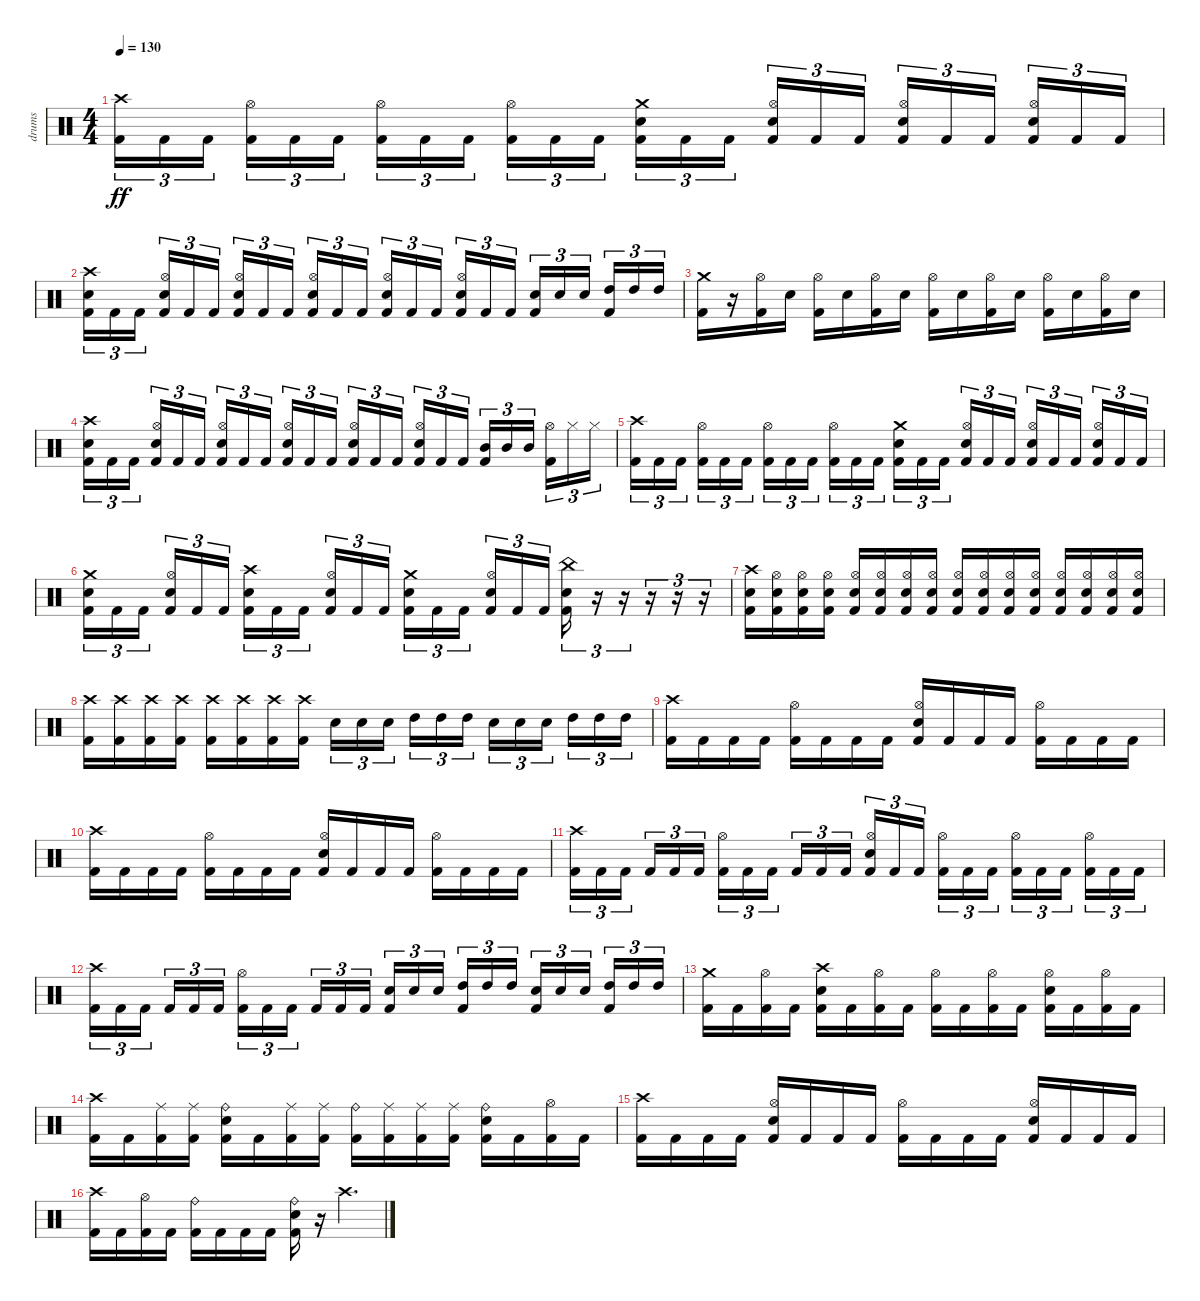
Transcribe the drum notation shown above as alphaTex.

\track ("drums" "drums") {instrument percussion}
\staff {score}
\articulation defaults
\ts (4 4)
\tempo 130
\clef neutral
\ks c
("Crash high (hit)" "Kick (hit) 2").16{tu (3 2) dy ff} "Kick (hit) 2".16{tu (3 2)} "Kick (hit) 2".16{tu (3 2) beam splitsecondary} ("Hi-Hat (open)" "Kick (hit) 2").16{tu (3 2)} "Kick (hit) 2".16{tu (3 2)} "Kick (hit) 2".16{tu (3 2)} ("Hi-Hat (open)" "Kick (hit) 2").16{tu (3 2)} "Kick (hit) 2".16{tu (3 2)} "Kick (hit) 2".16{tu (3 2) beam splitsecondary} ("Hi-Hat (open)" "Kick (hit) 2").16{tu (3 2)} "Kick (hit) 2".16{tu (3 2)} "Kick (hit) 2".16{tu (3 2)} ("Electric Snare (hit)" "Crash medium (hit)" "Kick (hit) 2").16{tu (3 2)} "Kick (hit) 2".16{tu (3 2)} "Kick (hit) 2".16{tu (3 2) beam splitsecondary} ("Electric Snare (hit)" "Hi-Hat (open)" "Kick (hit) 2").16{tu (3 2)} "Kick (hit) 2".16{tu (3 2)} "Kick (hit) 2".16{tu (3 2)} ("Electric Snare (hit)" "Hi-Hat (open)" "Kick (hit) 2").16{tu (3 2)} "Kick (hit) 2".16{tu (3 2)} "Kick (hit) 2".16{tu (3 2) beam splitsecondary} ("Electric Snare (hit)" "Hi-Hat (open)" "Kick (hit) 2").16{tu (3 2)} "Kick (hit) 2".16{tu (3 2)} "Kick (hit) 2".16{tu (3 2)} |
("Electric Snare (hit)" "Crash high (hit)" "Kick (hit) 2").16{tu (3 2)} "Kick (hit) 2".16{tu (3 2)} "Kick (hit) 2".16{tu (3 2) beam splitsecondary} ("Electric Snare (hit)" "Hi-Hat (open)" "Kick (hit) 2").16{tu (3 2)} "Kick (hit) 2".16{tu (3 2)} "Kick (hit) 2".16{tu (3 2)} ("Electric Snare (hit)" "Hi-Hat (open)" "Kick (hit) 2").16{tu (3 2)} "Kick (hit) 2".16{tu (3 2)} "Kick (hit) 2".16{tu (3 2) beam splitsecondary} ("Electric Snare (hit)" "Hi-Hat (open)" "Kick (hit) 2").16{tu (3 2)} "Kick (hit) 2".16{tu (3 2)} "Kick (hit) 2".16{tu (3 2)} ("Electric Snare (hit)" "Hi-Hat (open)" "Kick (hit) 2").16{tu (3 2)} "Kick (hit) 2".16{tu (3 2)} "Kick (hit) 2".16{tu (3 2) beam splitsecondary} ("Electric Snare (hit)" "Hi-Hat (open)" "Kick (hit) 2").16{tu (3 2)} "Kick (hit) 2".16{tu (3 2)} "Kick (hit) 2".16{tu (3 2)} ("Kick (hit) 2" "Electric Snare (hit)").16{tu (3 2)} "Electric Snare (hit)".16{tu (3 2)} "Electric Snare (hit)".16{tu (3 2) beam splitsecondary} ("Kick (hit) 2" "High Tom (hit)").16{tu (3 2)} "High Tom (hit)".16{tu (3 2)} "High Tom (hit)".16{tu (3 2)} |
("Crash medium (hit)" "Kick (hit) 2").16 r.16 ("Hi-Hat (open)" "Kick (hit) 2").16 "Electric Snare (hit)".16 ("Hi-Hat (open)" "Kick (hit) 2").16 "Electric Snare (hit)".16 ("Hi-Hat (open)" "Kick (hit) 2").16 "Electric Snare (hit)".16 ("Hi-Hat (open)" "Kick (hit) 2").16 "Electric Snare (hit)".16 ("Hi-Hat (open)" "Kick (hit) 2").16 "Electric Snare (hit)".16 ("Hi-Hat (open)" "Kick (hit) 2").16 "Electric Snare (hit)".16 ("Hi-Hat (open)" "Kick (hit) 2").16 "Electric Snare (hit)".16 |
("Electric Snare (hit)" "Crash high (hit)" "Kick (hit) 2").16{tu (3 2)} "Kick (hit) 2".16{tu (3 2)} "Kick (hit) 2".16{tu (3 2) beam splitsecondary} ("Electric Snare (hit)" "Hi-Hat (open)" "Kick (hit) 2").16{tu (3 2)} "Kick (hit) 2".16{tu (3 2)} "Kick (hit) 2".16{tu (3 2)} ("Electric Snare (hit)" "Hi-Hat (open)" "Kick (hit) 2").16{tu (3 2)} "Kick (hit) 2".16{tu (3 2)} "Kick (hit) 2".16{tu (3 2) beam splitsecondary} ("Electric Snare (hit)" "Hi-Hat (open)" "Kick (hit) 2").16{tu (3 2)} "Kick (hit) 2".16{tu (3 2)} "Kick (hit) 2".16{tu (3 2)} ("Electric Snare (hit)" "Hi-Hat (open)" "Kick (hit) 2").16{tu (3 2)} "Kick (hit) 2".16{tu (3 2)} "Kick (hit) 2".16{tu (3 2) beam splitsecondary} ("Electric Snare (hit)" "Hi-Hat (open)" "Kick (hit) 2").16{tu (3 2)} "Kick (hit) 2".16{tu (3 2)} "Kick (hit) 2".16{tu (3 2)} ("Kick (hit) 2" "Mid Tom (hit)").16{tu (3 2)} "Mid Tom (hit)".16{tu (3 2)} "Mid Tom (hit)".16{tu (3 2) beam splitsecondary} ("Kick (hit) 2" "Hi-Hat (open)").16{tu (3 2)} "Hi-Hat (closed)".16{tu (3 2)} "Hi-Hat (closed)".16{tu (3 2)} |
("Crash high (hit)" "Kick (hit) 2").16{tu (3 2)} "Kick (hit) 2".16{tu (3 2)} "Kick (hit) 2".16{tu (3 2) beam splitsecondary} ("Hi-Hat (open)" "Kick (hit) 2").16{tu (3 2)} "Kick (hit) 2".16{tu (3 2)} "Kick (hit) 2".16{tu (3 2)} ("Hi-Hat (open)" "Kick (hit) 2").16{tu (3 2)} "Kick (hit) 2".16{tu (3 2)} "Kick (hit) 2".16{tu (3 2) beam splitsecondary} ("Hi-Hat (open)" "Kick (hit) 2").16{tu (3 2)} "Kick (hit) 2".16{tu (3 2)} "Kick (hit) 2".16{tu (3 2)} ("Electric Snare (hit)" "Crash medium (hit)" "Kick (hit) 2").16{tu (3 2)} "Kick (hit) 2".16{tu (3 2)} "Kick (hit) 2".16{tu (3 2) beam splitsecondary} ("Electric Snare (hit)" "Hi-Hat (open)" "Kick (hit) 2").16{tu (3 2)} "Kick (hit) 2".16{tu (3 2)} "Kick (hit) 2".16{tu (3 2)} ("Electric Snare (hit)" "Hi-Hat (open)" "Kick (hit) 2").16{tu (3 2)} "Kick (hit) 2".16{tu (3 2)} "Kick (hit) 2".16{tu (3 2) beam splitsecondary} ("Electric Snare (hit)" "Hi-Hat (open)" "Kick (hit) 2").16{tu (3 2)} "Kick (hit) 2".16{tu (3 2)} "Kick (hit) 2".16{tu (3 2)} |
("Electric Snare (hit)" "Crash medium (hit)" "Kick (hit) 2").16{tu (3 2)} "Kick (hit) 2".16{tu (3 2)} "Kick (hit) 2".16{tu (3 2) beam splitsecondary} ("Electric Snare (hit)" "Hi-Hat (open)" "Kick (hit) 2").16{tu (3 2)} "Kick (hit) 2".16{tu (3 2)} "Kick (hit) 2".16{tu (3 2)} ("Electric Snare (hit)" "Crash high (hit)" "Kick (hit) 2").16{tu (3 2)} "Kick (hit) 2".16{tu (3 2)} "Kick (hit) 2".16{tu (3 2) beam splitsecondary} ("Electric Snare (hit)" "Hi-Hat (open)" "Kick (hit) 2").16{tu (3 2)} "Kick (hit) 2".16{tu (3 2)} "Kick (hit) 2".16{tu (3 2)} ("Electric Snare (hit)" "Crash medium (hit)" "Kick (hit) 2").16{tu (3 2)} "Kick (hit) 2".16{tu (3 2)} "Kick (hit) 2".16{tu (3 2) beam splitsecondary} ("Electric Snare (hit)" "Hi-Hat (open)" "Kick (hit) 2").16{tu (3 2)} "Kick (hit) 2".16{tu (3 2)} "Kick (hit) 2".16{tu (3 2)} ("Electric Snare (hit)" "China (hit)" "Kick (hit) 2").16{tu (3 2)} r.16{tu (3 2)} r.16{tu (3 2)} r.16{tu (3 2)} r.16{tu (3 2)} r.16{tu (3 2)} |
("Electric Snare (hit)" "Crash high (hit)" "Kick (hit) 2").16 ("Electric Snare (hit)" "Hi-Hat (open)" "Kick (hit) 2").16 ("Electric Snare (hit)" "Hi-Hat (open)" "Kick (hit) 2").16 ("Electric Snare (hit)" "Hi-Hat (open)" "Kick (hit) 2").16 ("Electric Snare (hit)" "Hi-Hat (open)" "Kick (hit) 2").16 ("Electric Snare (hit)" "Hi-Hat (open)" "Kick (hit) 2").16 ("Electric Snare (hit)" "Hi-Hat (open)" "Kick (hit) 2").16 ("Electric Snare (hit)" "Hi-Hat (open)" "Kick (hit) 2").16 ("Electric Snare (hit)" "Hi-Hat (open)" "Kick (hit) 2").16 ("Electric Snare (hit)" "Hi-Hat (open)" "Kick (hit) 2").16 ("Electric Snare (hit)" "Hi-Hat (open)" "Kick (hit) 2").16 ("Electric Snare (hit)" "Hi-Hat (open)" "Kick (hit) 2").16 ("Electric Snare (hit)" "Hi-Hat (open)" "Kick (hit) 2").16 ("Electric Snare (hit)" "Hi-Hat (open)" "Kick (hit) 2").16 ("Electric Snare (hit)" "Hi-Hat (open)" "Kick (hit) 2").16 ("Electric Snare (hit)" "Hi-Hat (open)" "Kick (hit) 2").16 |
("Crash high (hit)" "Kick (hit) 2").16{volume 13} ("Kick (hit) 2" "Crash high (hit)").16{volume 0} ("Crash high (hit)" "Kick (hit) 2").16{volume 13} ("Kick (hit) 2" "Crash high (hit)").16{volume 0} ("Crash high (hit)" "Kick (hit) 2").16{volume 13} ("Kick (hit) 2" "Crash high (hit)").16{volume 0} ("Crash high (hit)" "Kick (hit) 2").16{volume 13} ("Kick (hit) 2" "Crash high (hit)").16{volume 0} "Electric Snare (hit)".16{tu (3 2) volume 13} "Electric Snare (hit)".16{tu (3 2) volume 13} "Electric Snare (hit)".16{tu (3 2) volume 13 beam splitsecondary} "High Tom (hit)".16{tu (3 2)} "High Tom (hit)".16{tu (3 2)} "High Tom (hit)".16{tu (3 2)} "Electric Snare (hit)".16{tu (3 2) volume 13} "Electric Snare (hit)".16{tu (3 2) volume 13} "Electric Snare (hit)".16{tu (3 2) volume 13 beam splitsecondary} "High Tom (hit)".16{tu (3 2)} "High Tom (hit)".16{tu (3 2)} "High Tom (hit)".16{tu (3 2)} |
("Crash high (hit)" "Kick (hit) 2").16 "Kick (hit) 2".16 "Kick (hit) 2".16 "Kick (hit) 2".16 ("Hi-Hat (open)" "Kick (hit) 2").16 "Kick (hit) 2".16 "Kick (hit) 2".16 "Kick (hit) 2".16 ("Electric Snare (hit)" "Hi-Hat (open)" "Kick (hit) 2").16 "Kick (hit) 2".16 "Kick (hit) 2".16 "Kick (hit) 2".16 ("Hi-Hat (open)" "Kick (hit) 2").16 "Kick (hit) 2".16 "Kick (hit) 2".16 "Kick (hit) 2".16 |
("Crash high (hit)" "Kick (hit) 2").16 "Kick (hit) 2".16 "Kick (hit) 2".16 "Kick (hit) 2".16 ("Hi-Hat (open)" "Kick (hit) 2").16 "Kick (hit) 2".16 "Kick (hit) 2".16 "Kick (hit) 2".16 ("Electric Snare (hit)" "Hi-Hat (open)" "Kick (hit) 2").16 "Kick (hit) 2".16 "Kick (hit) 2".16 "Kick (hit) 2".16 ("Hi-Hat (open)" "Kick (hit) 2").16 "Kick (hit) 2".16 "Kick (hit) 2".16 "Kick (hit) 2".16 |
("Crash high (hit)" "Kick (hit) 2").16{tu (3 2)} "Kick (hit) 2".16{tu (3 2)} "Kick (hit) 2".16{tu (3 2) beam splitsecondary} "Kick (hit) 2".16{tu (3 2)} "Kick (hit) 2".16{tu (3 2)} "Kick (hit) 2".16{tu (3 2)} ("Hi-Hat (open)" "Kick (hit) 2").16{tu (3 2)} "Kick (hit) 2".16{tu (3 2)} "Kick (hit) 2".16{tu (3 2) beam splitsecondary} "Kick (hit) 2".16{tu (3 2)} "Kick (hit) 2".16{tu (3 2)} "Kick (hit) 2".16{tu (3 2)} ("Electric Snare (hit)" "Hi-Hat (open)" "Kick (hit) 2").16{tu (3 2)} "Kick (hit) 2".16{tu (3 2)} "Kick (hit) 2".16{tu (3 2) beam splitsecondary} ("Hi-Hat (open)" "Kick (hit) 2").16{tu (3 2)} "Kick (hit) 2".16{tu (3 2)} "Kick (hit) 2".16{tu (3 2)} ("Hi-Hat (open)" "Kick (hit) 2").16{tu (3 2)} "Kick (hit) 2".16{tu (3 2)} "Kick (hit) 2".16{tu (3 2) beam splitsecondary} ("Hi-Hat (open)" "Kick (hit) 2").16{tu (3 2)} "Kick (hit) 2".16{tu (3 2)} "Kick (hit) 2".16{tu (3 2)} |
("Crash high (hit)" "Kick (hit) 2").16{tu (3 2)} "Kick (hit) 2".16{tu (3 2)} "Kick (hit) 2".16{tu (3 2) beam splitsecondary} "Kick (hit) 2".16{tu (3 2)} "Kick (hit) 2".16{tu (3 2)} "Kick (hit) 2".16{tu (3 2)} ("Hi-Hat (open)" "Kick (hit) 2").16{tu (3 2)} "Kick (hit) 2".16{tu (3 2)} "Kick (hit) 2".16{tu (3 2) beam splitsecondary} "Kick (hit) 2".16{tu (3 2)} "Kick (hit) 2".16{tu (3 2)} "Kick (hit) 2".16{tu (3 2)} ("Kick (hit) 2" "Electric Snare (hit)").16{tu (3 2)} "Electric Snare (hit)".16{tu (3 2)} "Electric Snare (hit)".16{tu (3 2) beam splitsecondary} ("Kick (hit) 2" "High Tom (hit)").16{tu (3 2)} "High Tom (hit)".16{tu (3 2)} "High Tom (hit)".16{tu (3 2)} ("Kick (hit) 2" "Electric Snare (hit)").16{tu (3 2)} "Electric Snare (hit)".16{tu (3 2)} "Electric Snare (hit)".16{tu (3 2) beam splitsecondary} ("Kick (hit) 2" "High Tom (hit)").16{tu (3 2)} "High Tom (hit)".16{tu (3 2)} "High Tom (hit)".16{tu (3 2)} |
("Crash medium (hit)" "Kick (hit) 2").16 "Kick (hit) 2".16 ("Hi-Hat (open)" "Kick (hit) 2").16 "Kick (hit) 2".16 ("Electric Snare (hit)" "Crash high (hit)" "Kick (hit) 2").16 "Kick (hit) 2".16 ("Hi-Hat (open)" "Kick (hit) 2").16 "Kick (hit) 2".16 ("Hi-Hat (open)" "Kick (hit) 2").16 "Kick (hit) 2".16 ("Hi-Hat (open)" "Kick (hit) 2").16 "Kick (hit) 2".16 ("Electric Snare (hit)" "Hi-Hat (open)" "Kick (hit) 2").16 "Kick (hit) 2".16 ("Hi-Hat (open)" "Kick (hit) 2").16 "Kick (hit) 2".16 |
("Crash high (hit)" "Kick (hit) 2").16 "Kick (hit) 2".16 ("Ride (middle)" "Kick (hit) 2").16 ("Ride (middle)" "Kick (hit) 2").16 ("Electric Snare (hit)" "Ride (bell)" "Kick (hit) 2").16 "Kick (hit) 2".16 ("Ride (middle)" "Kick (hit) 2").16 ("Ride (middle)" "Kick (hit) 2").16 ("Ride (bell)" "Kick (hit) 2").16 ("Ride (middle)" "Kick (hit) 2").16 ("Ride (middle)" "Kick (hit) 2").16 ("Ride (middle)" "Kick (hit) 2").16 ("Electric Snare (hit)" "Ride (bell)" "Kick (hit) 2").16 "Kick (hit) 2".16 ("Hi-Hat (open)" "Kick (hit) 2").16 "Kick (hit) 2".16 |
("Crash high (hit)" "Kick (hit) 2").16 "Kick (hit) 2".16 "Kick (hit) 2".16 "Kick (hit) 2".16 ("Electric Snare (hit)" "Hi-Hat (open)" "Kick (hit) 2").16 "Kick (hit) 2".16 "Kick (hit) 2".16 "Kick (hit) 2".16 ("Hi-Hat (open)" "Kick (hit) 2").16 "Kick (hit) 2".16 "Kick (hit) 2".16 "Kick (hit) 2".16 ("Electric Snare (hit)" "Hi-Hat (open)" "Kick (hit) 2").16 "Kick (hit) 2".16 "Kick (hit) 2".16 "Kick (hit) 2".16 |
("Crash high (hit)" "Kick (hit) 2").16 "Kick (hit) 2".16 ("Hi-Hat (open)" "Kick (hit) 2").16 "Kick (hit) 2".16 ("Ride (bell)" "Kick (hit) 2").16 "Kick (hit) 2".16 "Kick (hit) 2".16 "Kick (hit) 2".16 ("Electric Snare (hit)" "Ride (bell)" "Kick (hit) 2").16 r.16{volume 0} "Crash high (hit)".4{d volume 13}
